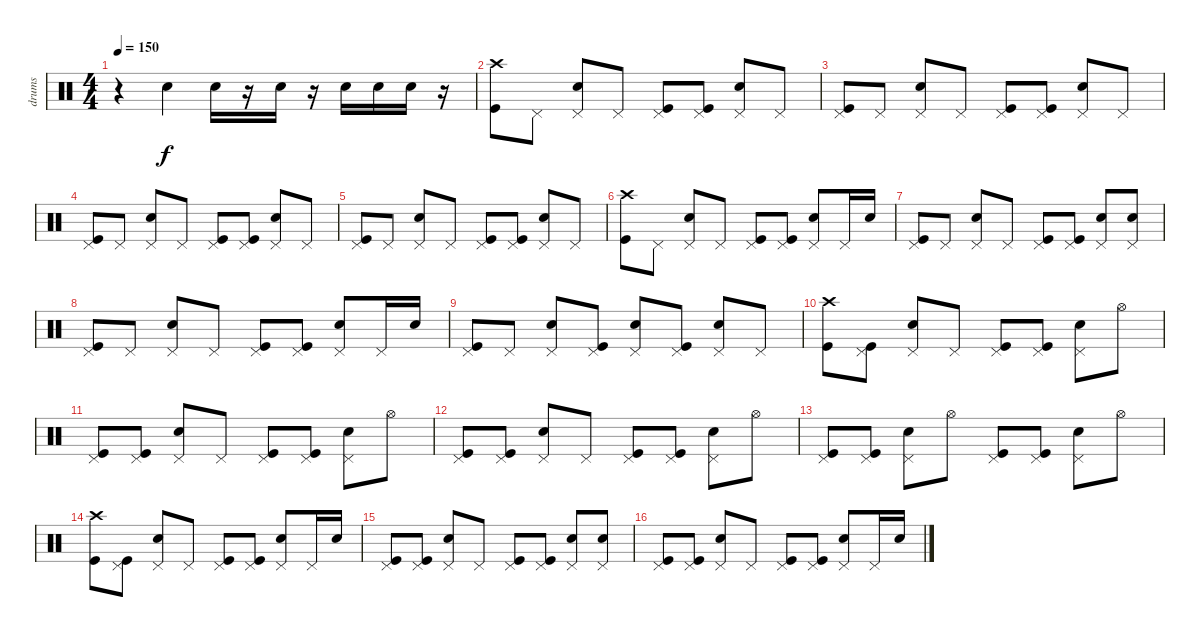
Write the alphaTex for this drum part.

\track ("drums" "drums") {instrument percussion}
\staff {score}
\articulation defaults
\ts (4 4)
\tempo 150
\clef neutral
\ks c
r.4{dy f} "Electric Snare (hit)".4 "Electric Snare (hit)".16 r.16 "Electric Snare (hit)".16 r.16 "Electric Snare (hit)".16 "Electric Snare (hit)".16 "Electric Snare (hit)".16 r.16 |
("Crash high (hit)" "Kick (hit)").8 "Pedal Hi-Hat (hit)".8 ("Pedal Hi-Hat (hit)" "Electric Snare (hit)").8 "Pedal Hi-Hat (hit)".8 ("Pedal Hi-Hat (hit)" "Kick (hit)").8 ("Pedal Hi-Hat (hit)" "Kick (hit)").8 ("Pedal Hi-Hat (hit)" "Electric Snare (hit)").8 "Pedal Hi-Hat (hit)".8 |
("Pedal Hi-Hat (hit)" "Kick (hit)").8 "Pedal Hi-Hat (hit)".8 ("Pedal Hi-Hat (hit)" "Electric Snare (hit)").8 "Pedal Hi-Hat (hit)".8 ("Pedal Hi-Hat (hit)" "Kick (hit)").8 ("Pedal Hi-Hat (hit)" "Kick (hit)").8 ("Pedal Hi-Hat (hit)" "Electric Snare (hit)").8 "Pedal Hi-Hat (hit)".8 |
("Pedal Hi-Hat (hit)" "Kick (hit)").8 "Pedal Hi-Hat (hit)".8 ("Pedal Hi-Hat (hit)" "Electric Snare (hit)").8 "Pedal Hi-Hat (hit)".8 ("Pedal Hi-Hat (hit)" "Kick (hit)").8 ("Pedal Hi-Hat (hit)" "Kick (hit)").8 ("Pedal Hi-Hat (hit)" "Electric Snare (hit)").8 "Pedal Hi-Hat (hit)".8 |
("Pedal Hi-Hat (hit)" "Kick (hit)").8 "Pedal Hi-Hat (hit)".8 ("Pedal Hi-Hat (hit)" "Electric Snare (hit)").8 "Pedal Hi-Hat (hit)".8 ("Pedal Hi-Hat (hit)" "Kick (hit)").8 ("Pedal Hi-Hat (hit)" "Kick (hit)").8 ("Pedal Hi-Hat (hit)" "Electric Snare (hit)").8 "Pedal Hi-Hat (hit)".8 |
("Crash high (hit)" "Kick (hit)").8 "Pedal Hi-Hat (hit)".8 ("Pedal Hi-Hat (hit)" "Electric Snare (hit)").8 "Pedal Hi-Hat (hit)".8 ("Pedal Hi-Hat (hit)" "Kick (hit)").8 ("Pedal Hi-Hat (hit)" "Kick (hit)").8 ("Pedal Hi-Hat (hit)" "Electric Snare (hit)").8 "Pedal Hi-Hat (hit)".16 "Electric Snare (hit)".16 |
("Pedal Hi-Hat (hit)" "Kick (hit)").8 "Pedal Hi-Hat (hit)".8 ("Pedal Hi-Hat (hit)" "Electric Snare (hit)").8 "Pedal Hi-Hat (hit)".8 ("Pedal Hi-Hat (hit)" "Kick (hit)").8 ("Pedal Hi-Hat (hit)" "Kick (hit)").8 ("Pedal Hi-Hat (hit)" "Electric Snare (hit)").8 ("Pedal Hi-Hat (hit)" "Electric Snare (hit)").8 |
("Pedal Hi-Hat (hit)" "Kick (hit)").8 "Pedal Hi-Hat (hit)".8 ("Pedal Hi-Hat (hit)" "Electric Snare (hit)").8 "Pedal Hi-Hat (hit)".8 ("Pedal Hi-Hat (hit)" "Kick (hit)").8 ("Pedal Hi-Hat (hit)" "Kick (hit)").8 ("Pedal Hi-Hat (hit)" "Electric Snare (hit)").8 "Pedal Hi-Hat (hit)".16 "Electric Snare (hit)".16 |
("Pedal Hi-Hat (hit)" "Kick (hit)").8 "Pedal Hi-Hat (hit)".8 ("Pedal Hi-Hat (hit)" "Electric Snare (hit)").8 ("Pedal Hi-Hat (hit)" "Kick (hit)").8 ("Pedal Hi-Hat (hit)" "Electric Snare (hit)").8 ("Pedal Hi-Hat (hit)" "Kick (hit)").8 ("Pedal Hi-Hat (hit)" "Electric Snare (hit)").8 "Pedal Hi-Hat (hit)".8 |
("Crash high (hit)" "Kick (hit)").8 ("Pedal Hi-Hat (hit)" "Kick (hit)").8 ("Pedal Hi-Hat (hit)" "Electric Snare (hit)").8 "Pedal Hi-Hat (hit)".8 ("Pedal Hi-Hat (hit)" "Kick (hit)").8 ("Pedal Hi-Hat (hit)" "Kick (hit)").8 ("Pedal Hi-Hat (hit)" "Electric Snare (hit)").8 "Hi-Hat (open)".8 |
("Pedal Hi-Hat (hit)" "Kick (hit)").8 ("Pedal Hi-Hat (hit)" "Kick (hit)").8 ("Pedal Hi-Hat (hit)" "Electric Snare (hit)").8 "Pedal Hi-Hat (hit)".8 ("Pedal Hi-Hat (hit)" "Kick (hit)").8 ("Pedal Hi-Hat (hit)" "Kick (hit)").8 ("Pedal Hi-Hat (hit)" "Electric Snare (hit)").8 "Hi-Hat (open)".8 |
("Pedal Hi-Hat (hit)" "Kick (hit)").8 ("Pedal Hi-Hat (hit)" "Kick (hit)").8 ("Pedal Hi-Hat (hit)" "Electric Snare (hit)").8 "Pedal Hi-Hat (hit)".8 ("Pedal Hi-Hat (hit)" "Kick (hit)").8 ("Pedal Hi-Hat (hit)" "Kick (hit)").8 ("Pedal Hi-Hat (hit)" "Electric Snare (hit)").8 "Hi-Hat (open)".8 |
("Pedal Hi-Hat (hit)" "Kick (hit)").8 ("Pedal Hi-Hat (hit)" "Kick (hit)").8 ("Pedal Hi-Hat (hit)" "Electric Snare (hit)").8 "Hi-Hat (open)".8 ("Pedal Hi-Hat (hit)" "Kick (hit)").8 ("Pedal Hi-Hat (hit)" "Kick (hit)").8 ("Pedal Hi-Hat (hit)" "Electric Snare (hit)").8 "Hi-Hat (open)".8 |
("Crash high (hit)" "Kick (hit)").8 ("Pedal Hi-Hat (hit)" "Kick (hit)").8 ("Pedal Hi-Hat (hit)" "Electric Snare (hit)").8 "Pedal Hi-Hat (hit)".8 ("Pedal Hi-Hat (hit)" "Kick (hit)").8 ("Pedal Hi-Hat (hit)" "Kick (hit)").8 ("Pedal Hi-Hat (hit)" "Electric Snare (hit)").8 "Pedal Hi-Hat (hit)".16 "Electric Snare (hit)".16 |
("Pedal Hi-Hat (hit)" "Kick (hit)").8 ("Pedal Hi-Hat (hit)" "Kick (hit)").8 ("Pedal Hi-Hat (hit)" "Electric Snare (hit)").8 "Pedal Hi-Hat (hit)".8 ("Pedal Hi-Hat (hit)" "Kick (hit)").8 ("Pedal Hi-Hat (hit)" "Kick (hit)").8 ("Pedal Hi-Hat (hit)" "Electric Snare (hit)").8 ("Pedal Hi-Hat (hit)" "Electric Snare (hit)").8 |
("Pedal Hi-Hat (hit)" "Kick (hit)").8 ("Pedal Hi-Hat (hit)" "Kick (hit)").8 ("Pedal Hi-Hat (hit)" "Electric Snare (hit)").8 "Pedal Hi-Hat (hit)".8 ("Pedal Hi-Hat (hit)" "Kick (hit)").8 ("Pedal Hi-Hat (hit)" "Kick (hit)").8 ("Pedal Hi-Hat (hit)" "Electric Snare (hit)").8 "Pedal Hi-Hat (hit)".16 "Electric Snare (hit)".16
